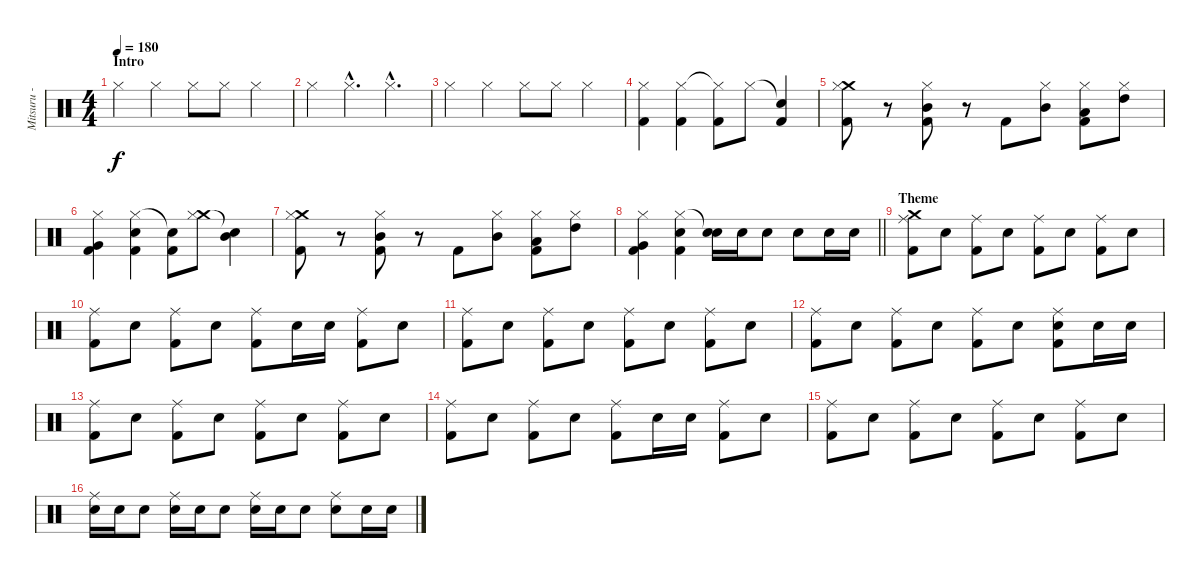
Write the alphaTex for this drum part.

\track ("Mitsuru - Batterie" "Mitsuru - ") {instrument percussion}
\staff {score}
\articulation defaults
\ts (4 4)
\section ("" "Intro")
\tempo 180
\clef neutral
\ks c "Hi-Hat (closed)".4{dy f} "Hi-Hat (closed)".4 "Hi-Hat (closed)".8 "Hi-Hat (closed)".8 "Hi-Hat (closed)".4
|
"Hi-Hat (closed)".4 "Hi-Hat (closed)"{hac}.4{d} "Hi-Hat (closed)"{hac}.4{d} |
"Hi-Hat (closed)".4 "Hi-Hat (closed)".4 "Hi-Hat (closed)".8 "Hi-Hat (closed)".8 "Hi-Hat (closed)".4 |
("Hi-Hat (closed)" "Kick (hit) 2").4 ("Hi-Hat (closed)" "Kick (hit) 2").4 ("Hi-Hat (closed)"{t} "Kick (hit) 2").8 "Hi-Hat (closed)".8 ("Snare (hit)"{t} "Kick (hit) 2").4 |
("Crash medium (hit)" "Hi-Hat (closed)" "Kick (hit) 2").8 r.8 ("Hi-Hat (closed)" "Mid Tom (hit)" "Kick (hit) 2").8 r.8 "Kick (hit) 2".8 ("Hi-Hat (closed)" "Mid Tom (hit)").8 ("Hi-Hat (closed)" "Low Tom (hit)" "Kick (hit) 2").8 ("Hi-Hat (closed)" "High Tom (hit)").8 |
("Hi-Hat (closed)" "Very Low Tom (hit)" "Kick (hit) 2").4 ("Hi-Hat (closed)" "Electric Snare (hit)" "Kick (hit) 2").4 ("Snare (hit)"{t} "Kick (hit) 2").8 ("Crash medium (hit)" "Hi-Hat (closed)").8 ("Snare (hit)"{t} "Mid Tom (hit)").4 |
("Crash medium (hit)" "Hi-Hat (closed)" "Kick (hit) 2").8 r.8 ("Hi-Hat (closed)" "Mid Tom (hit)" "Kick (hit) 2").8 r.8 "Kick (hit) 2".8 ("Hi-Hat (closed)" "Mid Tom (hit)").8 ("Hi-Hat (closed)" "Low Tom (hit)" "Kick (hit) 2").8 ("Hi-Hat (closed)" "High Tom (hit)").8 |
\barLineRight lightlight
("Hi-Hat (closed)" "Very Low Tom (hit)" "Kick (hit) 2").4 ("Hi-Hat (closed)" "Electric Snare (hit)" "Kick (hit) 2").4 ("Snare (hit)"{t} "Electric Snare (hit)").16 "Electric Snare (hit)".16 "Electric Snare (hit)".8 "Electric Snare (hit)".8 "Electric Snare (hit)".16 "Electric Snare (hit)".16 |
\section ("" "Theme")
("Crash medium (hit)" "Ride (middle)" "Kick (hit) 2").8 "Electric Snare (hit)".8 ("Ride (middle)" "Kick (hit) 2").8 "Electric Snare (hit)".8 ("Ride (middle)" "Kick (hit) 2").8 "Electric Snare (hit)".8 ("Ride (middle)" "Kick (hit) 2").8 "Electric Snare (hit)".8 |
("Ride (middle)" "Kick (hit) 2").8 "Electric Snare (hit)".8 ("Ride (middle)" "Kick (hit) 2").8 "Electric Snare (hit)".8 ("Ride (middle)" "Kick (hit) 2").8 "Electric Snare (hit)".16 "Electric Snare (hit)".16 ("Ride (middle)" "Kick (hit) 2").8 "Electric Snare (hit)".8 |
("Ride (middle)" "Kick (hit) 2").8 "Electric Snare (hit)".8 ("Ride (middle)" "Kick (hit) 2").8 "Electric Snare (hit)".8 ("Ride (middle)" "Kick (hit) 2").8 "Electric Snare (hit)".8 ("Ride (middle)" "Kick (hit) 2").8 "Electric Snare (hit)".8 |
("Ride (middle)" "Kick (hit) 2").8 "Electric Snare (hit)".8 ("Ride (middle)" "Kick (hit) 2").8 "Electric Snare (hit)".8 ("Ride (middle)" "Kick (hit) 2").8 "Electric Snare (hit)".8 ("Ride (middle)" "Electric Snare (hit)" "Kick (hit) 2").8 "Electric Snare (hit)".16 "Electric Snare (hit)".16 |
("Ride (middle)" "Kick (hit) 2").8 "Electric Snare (hit)".8 ("Ride (middle)" "Kick (hit) 2").8 "Electric Snare (hit)".8 ("Ride (middle)" "Kick (hit) 2").8 "Electric Snare (hit)".8 ("Ride (middle)" "Kick (hit) 2").8 "Electric Snare (hit)".8 |
("Ride (middle)" "Kick (hit) 2").8 "Electric Snare (hit)".8 ("Ride (middle)" "Kick (hit) 2").8 "Electric Snare (hit)".8 ("Ride (middle)" "Kick (hit) 2").8 "Electric Snare (hit)".16 "Electric Snare (hit)".16 ("Ride (middle)" "Kick (hit) 2").8 "Electric Snare (hit)".8 |
("Ride (middle)" "Kick (hit) 2").8 "Electric Snare (hit)".8 ("Ride (middle)" "Kick (hit) 2").8 "Electric Snare (hit)".8 ("Ride (middle)" "Kick (hit) 2").8 "Electric Snare (hit)".8 ("Ride (middle)" "Kick (hit) 2").8 "Electric Snare (hit)".8 |
("Ride (middle)" "Electric Snare (hit)").16 "Electric Snare (hit)".16 "Electric Snare (hit)".8 ("Ride (middle)" "Electric Snare (hit)").16 "Electric Snare (hit)".16 "Electric Snare (hit)".8 ("Ride (middle)" "Electric Snare (hit)").16 "Electric Snare (hit)".16 "Electric Snare (hit)".8 ("Ride (middle)" "Electric Snare (hit)").8 "Electric Snare (hit)".16 "Electric Snare (hit)".16
